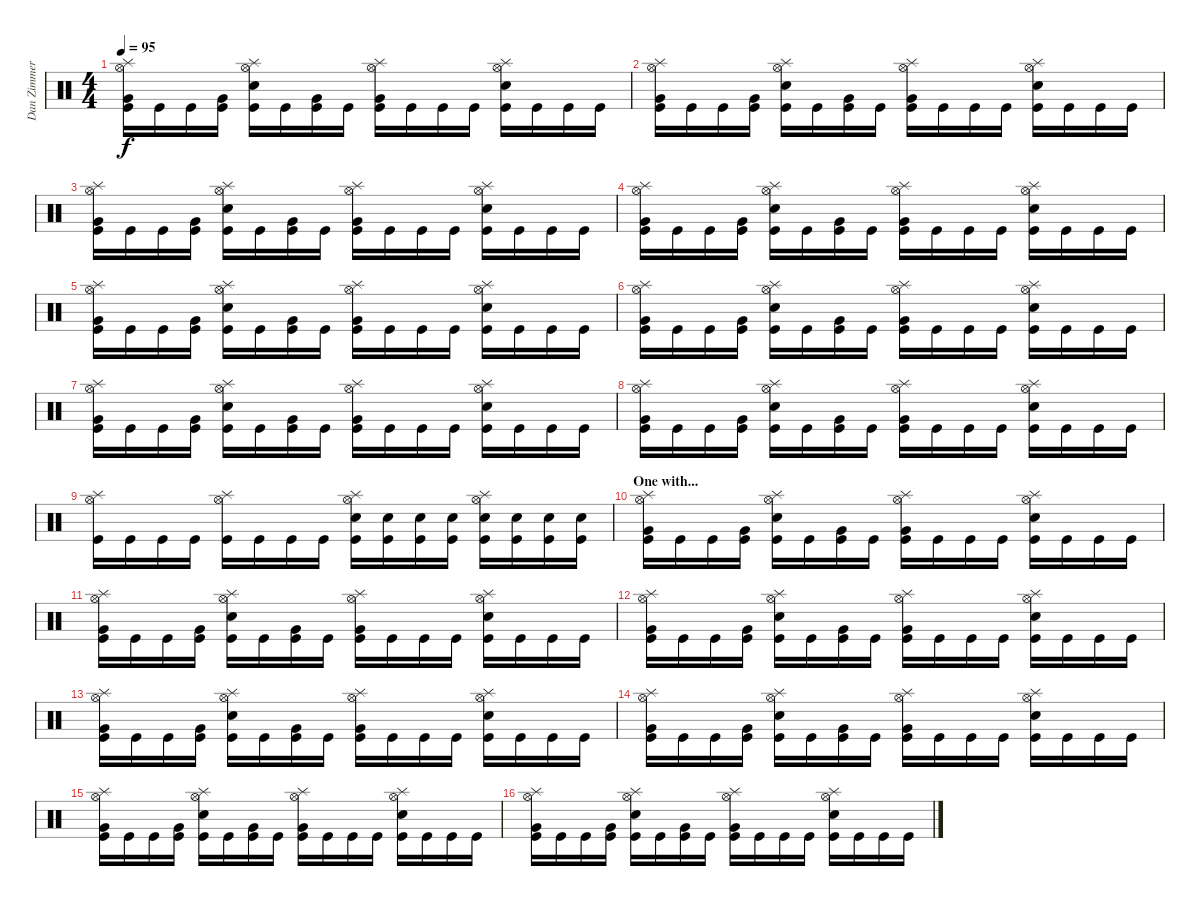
\track ("Dan Zimmermann [drums]" "Dan Zimmer") {instrument percussion}
\staff {score}
\articulation defaults
\ts (4 4)
\tempo 95
\clef neutral
\ks c
("Hi-Hat (open)" "Splash (hit)" "Very Low Tom (hit)" "Kick (hit)").16{dy f} "Kick (hit)".16 "Kick (hit)".16 ("Very Low Tom (hit)" "Kick (hit)").16 ("Hi-Hat (open)" "Splash (hit)" "Snare (hit) 2" "Kick (hit)").16 "Kick (hit)".16 ("Very Low Tom (hit)" "Kick (hit)").16 "Kick (hit)".16 ("Hi-Hat (open)" "Splash (hit)" "Very Low Tom (hit)" "Kick (hit)").16 "Kick (hit)".16 "Kick (hit)".16 "Kick (hit)".16 ("Hi-Hat (open)" "Splash (hit)" "Snare (hit) 2" "Kick (hit)").16 "Kick (hit)".16 "Kick (hit)".16 "Kick (hit)".16 |
("Hi-Hat (open)" "Splash (hit)" "Very Low Tom (hit)" "Kick (hit)").16 "Kick (hit)".16 "Kick (hit)".16 ("Very Low Tom (hit)" "Kick (hit)").16 ("Hi-Hat (open)" "Splash (hit)" "Snare (hit) 2" "Kick (hit)").16 "Kick (hit)".16 ("Very Low Tom (hit)" "Kick (hit)").16 "Kick (hit)".16 ("Hi-Hat (open)" "Splash (hit)" "Very Low Tom (hit)" "Kick (hit)").16 "Kick (hit)".16 "Kick (hit)".16 "Kick (hit)".16 ("Hi-Hat (open)" "Splash (hit)" "Snare (hit) 2" "Kick (hit)").16 "Kick (hit)".16 "Kick (hit)".16 "Kick (hit)".16 |
("Hi-Hat (open)" "Splash (hit)" "Very Low Tom (hit)" "Kick (hit)").16 "Kick (hit)".16 "Kick (hit)".16 ("Very Low Tom (hit)" "Kick (hit)").16 ("Hi-Hat (open)" "Splash (hit)" "Snare (hit) 2" "Kick (hit)").16 "Kick (hit)".16 ("Very Low Tom (hit)" "Kick (hit)").16 "Kick (hit)".16 ("Hi-Hat (open)" "Splash (hit)" "Very Low Tom (hit)" "Kick (hit)").16 "Kick (hit)".16 "Kick (hit)".16 "Kick (hit)".16 ("Hi-Hat (open)" "Splash (hit)" "Snare (hit) 2" "Kick (hit)").16 "Kick (hit)".16 "Kick (hit)".16 "Kick (hit)".16 |
("Hi-Hat (open)" "Splash (hit)" "Very Low Tom (hit)" "Kick (hit)").16 "Kick (hit)".16 "Kick (hit)".16 ("Very Low Tom (hit)" "Kick (hit)").16 ("Hi-Hat (open)" "Splash (hit)" "Snare (hit) 2" "Kick (hit)").16 "Kick (hit)".16 ("Very Low Tom (hit)" "Kick (hit)").16 "Kick (hit)".16 ("Hi-Hat (open)" "Splash (hit)" "Very Low Tom (hit)" "Kick (hit)").16 "Kick (hit)".16 "Kick (hit)".16 "Kick (hit)".16 ("Hi-Hat (open)" "Splash (hit)" "Snare (hit) 2" "Kick (hit)").16 "Kick (hit)".16 "Kick (hit)".16 "Kick (hit)".16 |
("Hi-Hat (open)" "Splash (hit)" "Very Low Tom (hit)" "Kick (hit)").16 "Kick (hit)".16 "Kick (hit)".16 ("Very Low Tom (hit)" "Kick (hit)").16 ("Hi-Hat (open)" "Splash (hit)" "Snare (hit) 2" "Kick (hit)").16 "Kick (hit)".16 ("Very Low Tom (hit)" "Kick (hit)").16 "Kick (hit)".16 ("Hi-Hat (open)" "Splash (hit)" "Very Low Tom (hit)" "Kick (hit)").16 "Kick (hit)".16 "Kick (hit)".16 "Kick (hit)".16 ("Hi-Hat (open)" "Splash (hit)" "Snare (hit) 2" "Kick (hit)").16 "Kick (hit)".16 "Kick (hit)".16 "Kick (hit)".16 |
("Hi-Hat (open)" "Splash (hit)" "Very Low Tom (hit)" "Kick (hit)").16 "Kick (hit)".16 "Kick (hit)".16 ("Very Low Tom (hit)" "Kick (hit)").16 ("Hi-Hat (open)" "Splash (hit)" "Snare (hit) 2" "Kick (hit)").16 "Kick (hit)".16 ("Very Low Tom (hit)" "Kick (hit)").16 "Kick (hit)".16 ("Hi-Hat (open)" "Splash (hit)" "Very Low Tom (hit)" "Kick (hit)").16 "Kick (hit)".16 "Kick (hit)".16 "Kick (hit)".16 ("Hi-Hat (open)" "Splash (hit)" "Snare (hit) 2" "Kick (hit)").16 "Kick (hit)".16 "Kick (hit)".16 "Kick (hit)".16 |
("Hi-Hat (open)" "Splash (hit)" "Very Low Tom (hit)" "Kick (hit)").16 "Kick (hit)".16 "Kick (hit)".16 ("Very Low Tom (hit)" "Kick (hit)").16 ("Hi-Hat (open)" "Splash (hit)" "Snare (hit) 2" "Kick (hit)").16 "Kick (hit)".16 ("Very Low Tom (hit)" "Kick (hit)").16 "Kick (hit)".16 ("Hi-Hat (open)" "Splash (hit)" "Very Low Tom (hit)" "Kick (hit)").16 "Kick (hit)".16 "Kick (hit)".16 "Kick (hit)".16 ("Hi-Hat (open)" "Splash (hit)" "Snare (hit) 2" "Kick (hit)").16 "Kick (hit)".16 "Kick (hit)".16 "Kick (hit)".16 |
("Hi-Hat (open)" "Splash (hit)" "Very Low Tom (hit)" "Kick (hit)").16 "Kick (hit)".16 "Kick (hit)".16 ("Very Low Tom (hit)" "Kick (hit)").16 ("Hi-Hat (open)" "Splash (hit)" "Snare (hit) 2" "Kick (hit)").16 "Kick (hit)".16 ("Very Low Tom (hit)" "Kick (hit)").16 "Kick (hit)".16 ("Hi-Hat (open)" "Splash (hit)" "Very Low Tom (hit)" "Kick (hit)").16 "Kick (hit)".16 "Kick (hit)".16 "Kick (hit)".16 ("Hi-Hat (open)" "Splash (hit)" "Snare (hit) 2" "Kick (hit)").16 "Kick (hit)".16 "Kick (hit)".16 "Kick (hit)".16 |
("Hi-Hat (open)" "Splash (hit)" "Kick (hit)").16 "Kick (hit)".16 "Kick (hit)".16 "Kick (hit)".16 ("Hi-Hat (open)" "Splash (hit)" "Kick (hit)").16 "Kick (hit)".16 "Kick (hit)".16 "Kick (hit)".16 ("Hi-Hat (open)" "Splash (hit)" "Snare (hit) 2" "Kick (hit)").16 ("Snare (hit) 2" "Kick (hit)").16 ("Snare (hit) 2" "Kick (hit)").16 ("Snare (hit) 2" "Kick (hit)").16 ("Hi-Hat (open)" "Splash (hit)" "Snare (hit) 2" "Kick (hit)").16 ("Snare (hit) 2" "Kick (hit)").16 ("Snare (hit) 2" "Kick (hit)").16 ("Snare (hit) 2" "Kick (hit)").16 |
\section ("" "One with...")
("Hi-Hat (open)" "Splash (hit)" "Very Low Tom (hit)" "Kick (hit)").16 "Kick (hit)".16 "Kick (hit)".16 ("Very Low Tom (hit)" "Kick (hit)").16 ("Hi-Hat (open)" "Splash (hit)" "Snare (hit) 2" "Kick (hit)").16 "Kick (hit)".16 ("Very Low Tom (hit)" "Kick (hit)").16 "Kick (hit)".16 ("Hi-Hat (open)" "Splash (hit)" "Very Low Tom (hit)" "Kick (hit)").16 "Kick (hit)".16 "Kick (hit)".16 "Kick (hit)".16 ("Hi-Hat (open)" "Splash (hit)" "Snare (hit) 2" "Kick (hit)").16 "Kick (hit)".16 "Kick (hit)".16 "Kick (hit)".16 |
("Hi-Hat (open)" "Splash (hit)" "Very Low Tom (hit)" "Kick (hit)").16 "Kick (hit)".16 "Kick (hit)".16 ("Very Low Tom (hit)" "Kick (hit)").16 ("Hi-Hat (open)" "Splash (hit)" "Snare (hit) 2" "Kick (hit)").16 "Kick (hit)".16 ("Very Low Tom (hit)" "Kick (hit)").16 "Kick (hit)".16 ("Hi-Hat (open)" "Splash (hit)" "Very Low Tom (hit)" "Kick (hit)").16 "Kick (hit)".16 "Kick (hit)".16 "Kick (hit)".16 ("Hi-Hat (open)" "Splash (hit)" "Snare (hit) 2" "Kick (hit)").16 "Kick (hit)".16 "Kick (hit)".16 "Kick (hit)".16 |
("Hi-Hat (open)" "Splash (hit)" "Very Low Tom (hit)" "Kick (hit)").16 "Kick (hit)".16 "Kick (hit)".16 ("Very Low Tom (hit)" "Kick (hit)").16 ("Hi-Hat (open)" "Splash (hit)" "Snare (hit) 2" "Kick (hit)").16 "Kick (hit)".16 ("Very Low Tom (hit)" "Kick (hit)").16 "Kick (hit)".16 ("Hi-Hat (open)" "Splash (hit)" "Very Low Tom (hit)" "Kick (hit)").16 "Kick (hit)".16 "Kick (hit)".16 "Kick (hit)".16 ("Hi-Hat (open)" "Splash (hit)" "Snare (hit) 2" "Kick (hit)").16 "Kick (hit)".16 "Kick (hit)".16 "Kick (hit)".16 |
("Hi-Hat (open)" "Splash (hit)" "Very Low Tom (hit)" "Kick (hit)").16 "Kick (hit)".16 "Kick (hit)".16 ("Very Low Tom (hit)" "Kick (hit)").16 ("Hi-Hat (open)" "Splash (hit)" "Snare (hit) 2" "Kick (hit)").16 "Kick (hit)".16 ("Very Low Tom (hit)" "Kick (hit)").16 "Kick (hit)".16 ("Hi-Hat (open)" "Splash (hit)" "Very Low Tom (hit)" "Kick (hit)").16 "Kick (hit)".16 "Kick (hit)".16 "Kick (hit)".16 ("Hi-Hat (open)" "Splash (hit)" "Snare (hit) 2" "Kick (hit)").16 "Kick (hit)".16 "Kick (hit)".16 "Kick (hit)".16 |
("Hi-Hat (open)" "Splash (hit)" "Very Low Tom (hit)" "Kick (hit)").16 "Kick (hit)".16 "Kick (hit)".16 ("Very Low Tom (hit)" "Kick (hit)").16 ("Hi-Hat (open)" "Splash (hit)" "Snare (hit) 2" "Kick (hit)").16 "Kick (hit)".16 ("Very Low Tom (hit)" "Kick (hit)").16 "Kick (hit)".16 ("Hi-Hat (open)" "Splash (hit)" "Very Low Tom (hit)" "Kick (hit)").16 "Kick (hit)".16 "Kick (hit)".16 "Kick (hit)".16 ("Hi-Hat (open)" "Splash (hit)" "Snare (hit) 2" "Kick (hit)").16 "Kick (hit)".16 "Kick (hit)".16 "Kick (hit)".16 |
("Hi-Hat (open)" "Splash (hit)" "Very Low Tom (hit)" "Kick (hit)").16 "Kick (hit)".16 "Kick (hit)".16 ("Very Low Tom (hit)" "Kick (hit)").16 ("Hi-Hat (open)" "Splash (hit)" "Snare (hit) 2" "Kick (hit)").16 "Kick (hit)".16 ("Very Low Tom (hit)" "Kick (hit)").16 "Kick (hit)".16 ("Hi-Hat (open)" "Splash (hit)" "Very Low Tom (hit)" "Kick (hit)").16 "Kick (hit)".16 "Kick (hit)".16 "Kick (hit)".16 ("Hi-Hat (open)" "Splash (hit)" "Snare (hit) 2" "Kick (hit)").16 "Kick (hit)".16 "Kick (hit)".16 "Kick (hit)".16 |
("Hi-Hat (open)" "Splash (hit)" "Very Low Tom (hit)" "Kick (hit)").16 "Kick (hit)".16 "Kick (hit)".16 ("Very Low Tom (hit)" "Kick (hit)").16 ("Hi-Hat (open)" "Splash (hit)" "Snare (hit) 2" "Kick (hit)").16 "Kick (hit)".16 ("Very Low Tom (hit)" "Kick (hit)").16 "Kick (hit)".16 ("Hi-Hat (open)" "Splash (hit)" "Very Low Tom (hit)" "Kick (hit)").16 "Kick (hit)".16 "Kick (hit)".16 "Kick (hit)".16 ("Hi-Hat (open)" "Splash (hit)" "Snare (hit) 2" "Kick (hit)").16 "Kick (hit)".16 "Kick (hit)".16 "Kick (hit)".16
